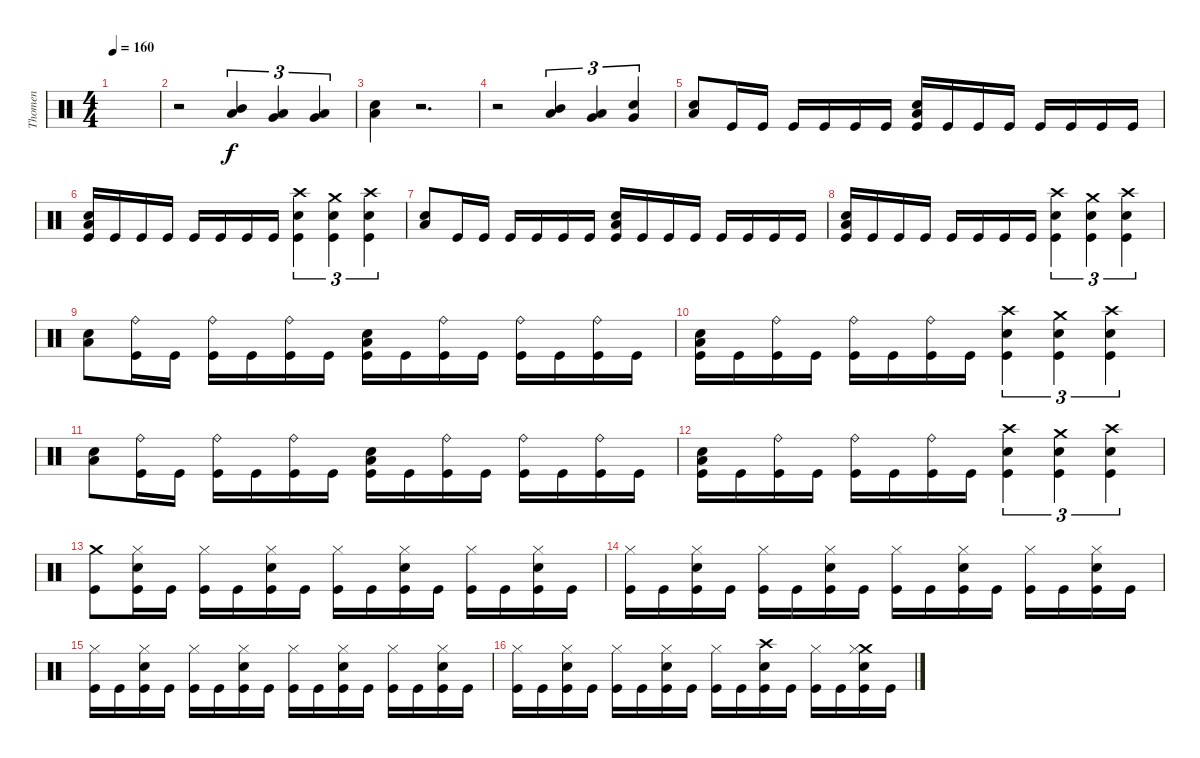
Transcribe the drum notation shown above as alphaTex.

\track ("Thomen" "Thomen") {instrument percussion}
\staff {score}
\articulation defaults
\ts (4 4)
\tempo 160
\clef neutral
\ks c
|
r.2 ("Mid Tom (hit)" "Low Tom (hit)").4{tu (3 2)} ("Low Tom (hit)" "Very Low Tom (hit)").4{tu (3 2)} ("Very Low Tom (hit)" "Low Floor Tom (hit)").4{tu (3 2)} |
("Low Floor Tom (hit)" "Snare (hit) 2").4 r.2{d} |
r.2 ("Mid Tom (hit)" "Low Tom (hit)").4{tu (3 2)} ("Low Tom (hit)" "Very Low Tom (hit)").4{tu (3 2)} ("Very Low Tom (hit)" "Snare (hit) 2").4{tu (3 2)} |
("Low Floor Tom (hit)" "Snare (hit) 2").8 "Kick (hit)".16 "Kick (hit)".16 "Kick (hit)".16 "Kick (hit)".16 "Kick (hit)".16 "Kick (hit)".16 ("Low Floor Tom (hit)" "Snare (hit) 2" "Kick (hit)").16 "Kick (hit)".16 "Kick (hit)".16 "Kick (hit)".16 "Kick (hit)".16 "Kick (hit)".16 "Kick (hit)".16 "Kick (hit)".16 |
("Low Floor Tom (hit)" "Snare (hit) 2" "Kick (hit)").16 "Kick (hit)".16 "Kick (hit)".16 "Kick (hit)".16 "Kick (hit)".16 "Kick (hit)".16 "Kick (hit)".16 "Kick (hit)".16 ("Crash high (hit)" "Snare (hit) 2" "Kick (hit)").4{tu (3 2)} ("Crash medium (hit)" "Snare (hit) 2" "Kick (hit)").4{tu (3 2)} ("Crash high (hit)" "Snare (hit) 2" "Kick (hit)").4{tu (3 2)} |
("Low Floor Tom (hit)" "Snare (hit) 2").8 "Kick (hit)".16 "Kick (hit)".16 "Kick (hit)".16 "Kick (hit)".16 "Kick (hit)".16 "Kick (hit)".16 ("Low Floor Tom (hit)" "Snare (hit) 2" "Kick (hit)").16 "Kick (hit)".16 "Kick (hit)".16 "Kick (hit)".16 "Kick (hit)".16 "Kick (hit)".16 "Kick (hit)".16 "Kick (hit)".16 |
("Low Floor Tom (hit)" "Snare (hit) 2" "Kick (hit)").16 "Kick (hit)".16 "Kick (hit)".16 "Kick (hit)".16 "Kick (hit)".16 "Kick (hit)".16 "Kick (hit)".16 "Kick (hit)".16 ("Crash high (hit)" "Snare (hit) 2" "Kick (hit)").4{tu (3 2)} ("Crash medium (hit)" "Snare (hit) 2" "Kick (hit)").4{tu (3 2)} ("Crash high (hit)" "Snare (hit) 2" "Kick (hit)").4{tu (3 2)} |
("Low Floor Tom (hit)" "Snare (hit) 2").8 ("Ride (bell)" "Kick (hit)").16 "Kick (hit)".16 ("Ride (bell)" "Kick (hit)").16 "Kick (hit)".16 ("Ride (bell)" "Kick (hit)").16 "Kick (hit)".16 ("Low Floor Tom (hit)" "Snare (hit) 2" "Kick (hit)").16 "Kick (hit)".16 ("Ride (bell)" "Kick (hit)").16 "Kick (hit)".16 ("Ride (bell)" "Kick (hit)").16 "Kick (hit)".16 ("Ride (bell)" "Kick (hit)").16 "Kick (hit)".16 |
("Low Floor Tom (hit)" "Snare (hit) 2" "Kick (hit)").16 "Kick (hit)".16 ("Ride (bell)" "Kick (hit)").16 "Kick (hit)".16 ("Ride (bell)" "Kick (hit)").16 "Kick (hit)".16 ("Ride (bell)" "Kick (hit)").16 "Kick (hit)".16 ("Crash high (hit)" "Snare (hit) 2" "Kick (hit)").4{tu (3 2)} ("Crash medium (hit)" "Snare (hit) 2" "Kick (hit)").4{tu (3 2)} ("Crash high (hit)" "Snare (hit) 2" "Kick (hit)").4{tu (3 2)} |
("Low Floor Tom (hit)" "Snare (hit) 2").8 ("Ride (bell)" "Kick (hit)").16 "Kick (hit)".16 ("Ride (bell)" "Kick (hit)").16 "Kick (hit)".16 ("Ride (bell)" "Kick (hit)").16 "Kick (hit)".16 ("Low Floor Tom (hit)" "Snare (hit) 2" "Kick (hit)").16 "Kick (hit)".16 ("Ride (bell)" "Kick (hit)").16 "Kick (hit)".16 ("Ride (bell)" "Kick (hit)").16 "Kick (hit)".16 ("Ride (bell)" "Kick (hit)").16 "Kick (hit)".16 |
("Low Floor Tom (hit)" "Snare (hit) 2" "Kick (hit)").16 "Kick (hit)".16 ("Ride (bell)" "Kick (hit)").16 "Kick (hit)".16 ("Ride (bell)" "Kick (hit)").16 "Kick (hit)".16 ("Ride (bell)" "Kick (hit)").16 "Kick (hit)".16 ("Crash high (hit)" "Snare (hit) 2" "Kick (hit)").4{tu (3 2)} ("Crash medium (hit)" "Snare (hit) 2" "Kick (hit)").4{tu (3 2)} ("Crash high (hit)" "Snare (hit) 2" "Kick (hit)").4{tu (3 2)} |
("Crash medium (hit)" "Kick (hit)").8 ("Hi-Hat (closed)" "Snare (hit) 2" "Kick (hit)").16 "Kick (hit)".16 ("Hi-Hat (closed)" "Kick (hit)").16 "Kick (hit)".16 ("Hi-Hat (closed)" "Snare (hit) 2" "Kick (hit)").16 "Kick (hit)".16 ("Hi-Hat (closed)" "Kick (hit)").16 "Kick (hit)".16 ("Hi-Hat (closed)" "Snare (hit) 2" "Kick (hit)").16 "Kick (hit)".16 ("Hi-Hat (closed)" "Kick (hit)").16 "Kick (hit)".16 ("Hi-Hat (closed)" "Snare (hit) 2" "Kick (hit)").16 "Kick (hit)".16 |
("Hi-Hat (closed)" "Kick (hit)").16 "Kick (hit)".16 ("Hi-Hat (closed)" "Snare (hit) 2" "Kick (hit)").16 "Kick (hit)".16 ("Hi-Hat (closed)" "Kick (hit)").16 "Kick (hit)".16 ("Hi-Hat (closed)" "Snare (hit) 2" "Kick (hit)").16 "Kick (hit)".16 ("Hi-Hat (closed)" "Kick (hit)").16 "Kick (hit)".16 ("Hi-Hat (closed)" "Snare (hit) 2" "Kick (hit)").16 "Kick (hit)".16 ("Hi-Hat (closed)" "Kick (hit)").16 "Kick (hit)".16 ("Hi-Hat (closed)" "Snare (hit) 2" "Kick (hit)").16 "Kick (hit)".16 |
("Hi-Hat (closed)" "Kick (hit)").16 "Kick (hit)".16 ("Hi-Hat (closed)" "Snare (hit) 2" "Kick (hit)").16 "Kick (hit)".16 ("Hi-Hat (closed)" "Kick (hit)").16 "Kick (hit)".16 ("Hi-Hat (closed)" "Snare (hit) 2" "Kick (hit)").16 "Kick (hit)".16 ("Hi-Hat (closed)" "Kick (hit)").16 "Kick (hit)".16 ("Hi-Hat (closed)" "Snare (hit) 2" "Kick (hit)").16 "Kick (hit)".16 ("Hi-Hat (closed)" "Kick (hit)").16 "Kick (hit)".16 ("Hi-Hat (closed)" "Snare (hit) 2" "Kick (hit)").16 "Kick (hit)".16 |
("Hi-Hat (closed)" "Kick (hit)").16 "Kick (hit)".16 ("Hi-Hat (closed)" "Snare (hit) 2" "Kick (hit)").16 "Kick (hit)".16 ("Hi-Hat (closed)" "Kick (hit)").16 "Kick (hit)".16 ("Hi-Hat (closed)" "Snare (hit) 2" "Kick (hit)").16 "Kick (hit)".16 ("Hi-Hat (closed)" "Kick (hit)").16 "Kick (hit)".16 ("Crash high (hit)" "Snare (hit) 2" "Kick (hit)").16 "Kick (hit)".16 ("Hi-Hat (closed)" "Kick (hit)").16 "Kick (hit)".16 ("Crash medium (hit)" "Hi-Hat (closed)" "Snare (hit) 2" "Kick (hit)").16 "Kick (hit)".16
